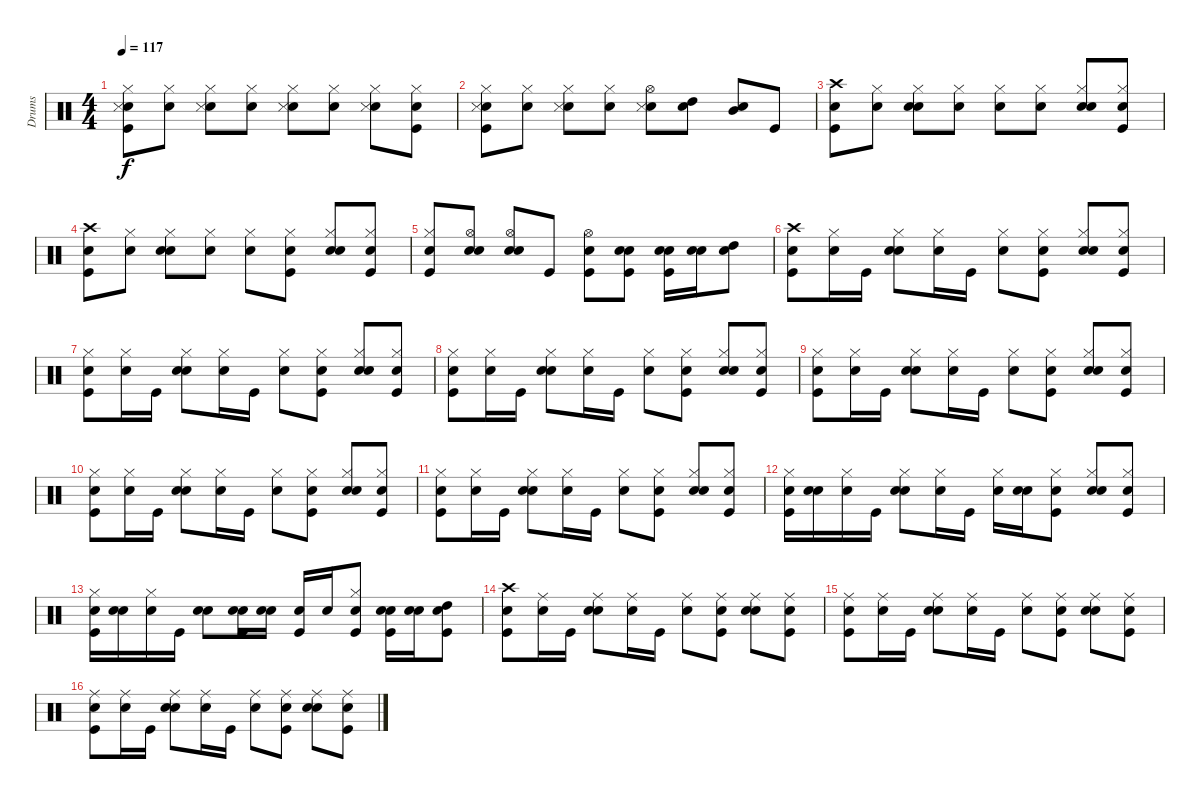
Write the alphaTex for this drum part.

\track ("Drums" "Drums") {instrument percussion}
\staff {score}
\articulation defaults
\ts (4 4)
\tempo 117
\clef neutral
\ks c
("Snare (hit)" "Snare (side stick) 3" "Hi-Hat (closed)" "Kick (hit)").8{dy f} ("Snare (hit)" "Hi-Hat (closed)").8 ("Snare (hit)" "Snare (side stick) 3" "Hi-Hat (closed)").8 ("Snare (hit)" "Hi-Hat (closed)").8 ("Snare (hit)" "Snare (side stick) 3" "Hi-Hat (closed)").8 ("Snare (hit)" "Hi-Hat (closed)").8 ("Snare (hit)" "Snare (side stick) 3" "Hi-Hat (closed)").8 ("Snare (hit)" "Hi-Hat (closed)" "Kick (hit)").8 |
("Snare (hit)" "Snare (side stick) 3" "Hi-Hat (closed)" "Kick (hit)").8 ("Snare (hit)" "Hi-Hat (closed)").8 ("Snare (hit)" "Snare (side stick) 3" "Hi-Hat (closed)").8 ("Snare (hit)" "Hi-Hat (closed)").8 ("Snare (hit)" "Snare (side stick) 3" "Hi-Hat (open)").8 ("Snare (hit)" "High Tom (hit)").8 ("Snare (hit)" "Mid Tom (hit)").8 "Kick (hit)".8 |
("Snare (hit)" "Crash high (hit)" "Kick (hit)").8 ("Snare (hit)" "Hi-Hat (closed)").8 ("Snare (hit)" "Electric Snare (hit)" "Hi-Hat (closed)").8 ("Snare (hit)" "Hi-Hat (closed)").8 ("Snare (hit)" "Hi-Hat (closed)").8 ("Snare (hit)" "Hi-Hat (closed)").8 ("Snare (hit)" "Electric Snare (hit)" "Hi-Hat (closed)").8 ("Snare (hit)" "Hi-Hat (closed)" "Kick (hit)").8 |
("Snare (hit)" "Crash high (hit)" "Kick (hit)").8 ("Snare (hit)" "Hi-Hat (closed)").8 ("Snare (hit)" "Electric Snare (hit)" "Hi-Hat (closed)").8 ("Snare (hit)" "Hi-Hat (closed)").8 ("Snare (hit)" "Hi-Hat (closed)").8 ("Snare (hit)" "Hi-Hat (closed)" "Kick (hit)").8 ("Snare (hit)" "Electric Snare (hit)" "Hi-Hat (closed)").8 ("Snare (hit)" "Hi-Hat (closed)" "Kick (hit)").8 |
("Snare (hit)" "Hi-Hat (closed)" "Kick (hit)").8 ("Snare (hit)" "Electric Snare (hit)" "Hi-Hat (open)").8 ("Snare (hit)" "Electric Snare (hit)" "Hi-Hat (open)").8 "Kick (hit)".8 ("Snare (hit)" "Hi-Hat (open)" "Kick (hit)").8 ("Snare (hit)" "Kick (hit)" "Electric Snare (hit)").8 ("Snare (hit)" "Kick (hit)" "Electric Snare (hit)").16 ("Snare (hit)" "Electric Snare (hit)").16 ("Snare (hit)" "High Tom (hit)").8 |
("Snare (hit)" "Kick (hit)" "Crash high (hit)").8 ("Snare (hit)" "Hi-Hat (closed)").16 "Kick (hit)".16 ("Snare (hit)" "Electric Snare (hit)" "Hi-Hat (closed)").8 ("Snare (hit)" "Hi-Hat (closed)").16 "Kick (hit)".16 ("Snare (hit)" "Hi-Hat (closed)").8 ("Snare (hit)" "Kick (hit)" "Hi-Hat (closed)").8 ("Snare (hit)" "Electric Snare (hit)" "Hi-Hat (closed)").8 ("Snare (hit)" "Kick (hit)" "Hi-Hat (closed)").8 |
("Snare (hit)" "Kick (hit)" "Hi-Hat (closed)").8 ("Snare (hit)" "Hi-Hat (closed)").16 "Kick (hit)".16 ("Snare (hit)" "Electric Snare (hit)" "Hi-Hat (closed)").8 ("Snare (hit)" "Hi-Hat (closed)").16 "Kick (hit)".16 ("Snare (hit)" "Hi-Hat (closed)").8 ("Snare (hit)" "Kick (hit)" "Hi-Hat (closed)").8 ("Snare (hit)" "Electric Snare (hit)" "Hi-Hat (closed)").8 ("Snare (hit)" "Kick (hit)" "Hi-Hat (closed)").8 |
("Snare (hit)" "Kick (hit)" "Hi-Hat (closed)").8 ("Snare (hit)" "Hi-Hat (closed)").16 "Kick (hit)".16 ("Snare (hit)" "Electric Snare (hit)" "Hi-Hat (closed)").8 ("Snare (hit)" "Hi-Hat (closed)").16 "Kick (hit)".16 ("Snare (hit)" "Hi-Hat (closed)").8 ("Snare (hit)" "Kick (hit)" "Hi-Hat (closed)").8 ("Snare (hit)" "Electric Snare (hit)" "Hi-Hat (closed)").8 ("Snare (hit)" "Kick (hit)" "Hi-Hat (closed)").8 |
("Snare (hit)" "Kick (hit)" "Hi-Hat (closed)").8 ("Snare (hit)" "Hi-Hat (closed)").16 "Kick (hit)".16 ("Snare (hit)" "Electric Snare (hit)" "Hi-Hat (closed)").8 ("Snare (hit)" "Hi-Hat (closed)").16 "Kick (hit)".16 ("Snare (hit)" "Hi-Hat (closed)").8 ("Snare (hit)" "Kick (hit)" "Hi-Hat (closed)").8 ("Snare (hit)" "Electric Snare (hit)" "Hi-Hat (closed)").8 ("Snare (hit)" "Kick (hit)" "Hi-Hat (closed)").8 |
("Snare (hit)" "Kick (hit)" "Hi-Hat (closed)").8 ("Snare (hit)" "Hi-Hat (closed)").16 "Kick (hit)".16 ("Snare (hit)" "Electric Snare (hit)" "Hi-Hat (closed)").8 ("Snare (hit)" "Hi-Hat (closed)").16 "Kick (hit)".16 ("Snare (hit)" "Hi-Hat (closed)").8 ("Snare (hit)" "Kick (hit)" "Hi-Hat (closed)").8 ("Snare (hit)" "Electric Snare (hit)" "Hi-Hat (closed)").8 ("Snare (hit)" "Kick (hit)" "Hi-Hat (closed)").8 |
("Snare (hit)" "Kick (hit)" "Hi-Hat (closed)").8 ("Snare (hit)" "Hi-Hat (closed)").16 "Kick (hit)".16 ("Snare (hit)" "Electric Snare (hit)" "Hi-Hat (closed)").8 ("Snare (hit)" "Hi-Hat (closed)").16 "Kick (hit)".16 ("Snare (hit)" "Hi-Hat (closed)").8 ("Snare (hit)" "Kick (hit)" "Hi-Hat (closed)").8 ("Snare (hit)" "Electric Snare (hit)" "Hi-Hat (closed)").8 ("Snare (hit)" "Kick (hit)" "Hi-Hat (closed)").8 |
("Snare (hit)" "Kick (hit)" "Hi-Hat (closed)").16 ("Snare (hit)" "Electric Snare (hit)").16 ("Snare (hit)" "Hi-Hat (closed)").16 "Kick (hit)".16 ("Snare (hit)" "Electric Snare (hit)" "Hi-Hat (closed)").8 ("Snare (hit)" "Hi-Hat (closed)").16 "Kick (hit)".16 ("Snare (hit)" "Hi-Hat (closed)").16 ("Snare (hit)" "Electric Snare (hit)").16 ("Snare (hit)" "Kick (hit)" "Hi-Hat (closed)").8 ("Snare (hit)" "Electric Snare (hit)" "Hi-Hat (closed)").8 ("Snare (hit)" "Kick (hit)" "Hi-Hat (closed)").8 |
("Snare (hit)" "Kick (hit)" "Hi-Hat (closed)").16 ("Snare (hit)" "Electric Snare (hit)").16 ("Snare (hit)" "Hi-Hat (closed)").16 "Kick (hit)".16 ("Snare (hit)" "Electric Snare (hit)").8 ("Snare (hit)" "Electric Snare (hit)" "Kick (hit)").16 ("Snare (hit)" "Electric Snare (hit)").16 ("Snare (hit)" "Kick (hit)").16 "Electric Snare (hit)".16 ("Snare (hit)" "Kick (hit)" "Hi-Hat (closed)").8 ("Snare (hit)" "Electric Snare (hit)" "Kick (hit)").16 ("Snare (hit)" "Electric Snare (hit)").16 ("Snare (hit)" "Kick (hit)" "High Tom (hit)").8 |
("Snare (hit)" "Kick (hit)" "Crash high (hit)").8 ("Snare (hit)" "Ride (middle)").16 "Kick (hit)".16 ("Snare (hit)" "Electric Snare (hit)" "Ride (middle)").8 ("Snare (hit)" "Ride (middle)").16 "Kick (hit)".16 ("Snare (hit)" "Ride (middle)").8 ("Snare (hit)" "Kick (hit)" "Ride (middle)").8 ("Snare (hit)" "Electric Snare (hit)" "Ride (middle)").8 ("Snare (hit)" "Kick (hit)" "Ride (middle)").8 |
("Snare (hit)" "Kick (hit)" "Ride (middle)").8 ("Snare (hit)" "Ride (middle)").16 "Kick (hit)".16 ("Snare (hit)" "Electric Snare (hit)" "Ride (middle)").8 ("Snare (hit)" "Ride (middle)").16 "Kick (hit)".16 ("Snare (hit)" "Ride (middle)").8 ("Snare (hit)" "Kick (hit)" "Ride (middle)").8 ("Snare (hit)" "Electric Snare (hit)" "Ride (middle)").8 ("Snare (hit)" "Kick (hit)" "Ride (middle)").8 |
("Snare (hit)" "Kick (hit)" "Ride (middle)").8 ("Snare (hit)" "Ride (middle)").16 "Kick (hit)".16 ("Snare (hit)" "Electric Snare (hit)" "Ride (middle)").8 ("Snare (hit)" "Ride (middle)").16 "Kick (hit)".16 ("Snare (hit)" "Ride (middle)").8 ("Snare (hit)" "Kick (hit)" "Ride (middle)").8 ("Snare (hit)" "Electric Snare (hit)" "Ride (middle)").8 ("Snare (hit)" "Kick (hit)" "Ride (middle)").8
